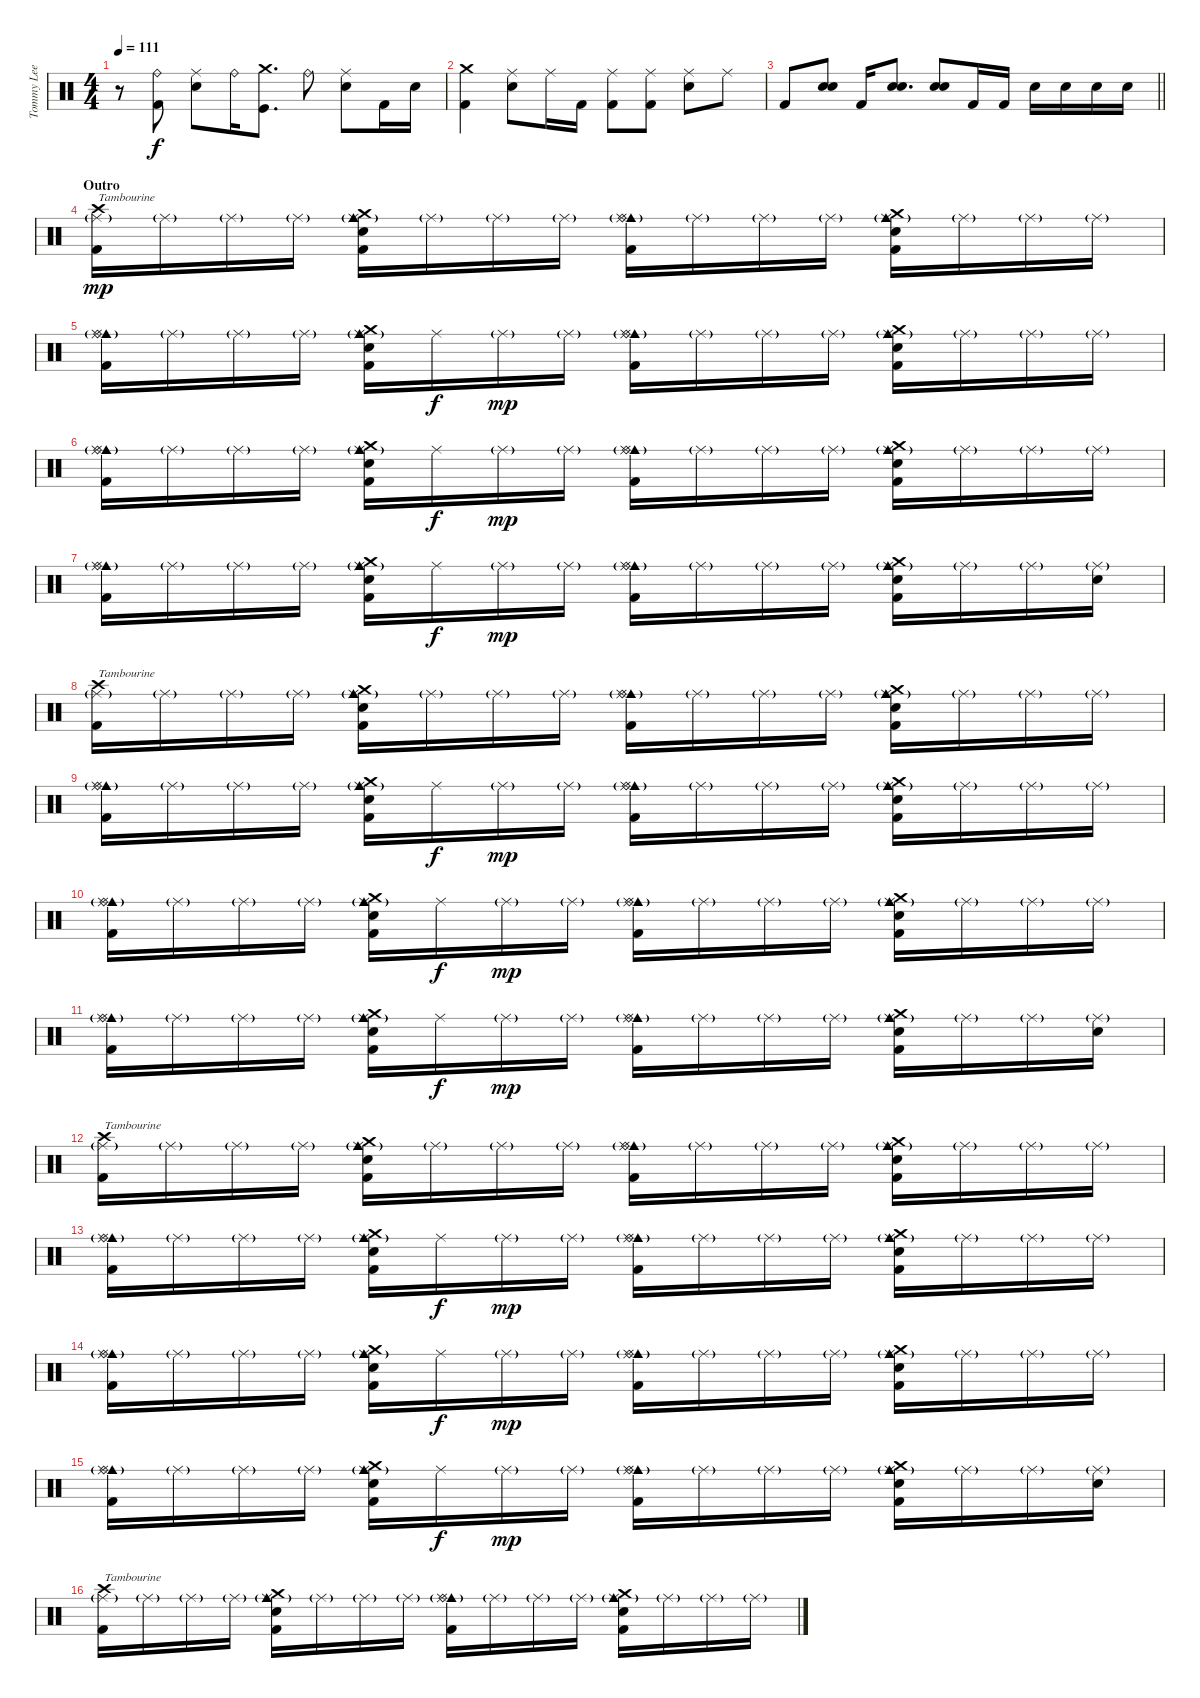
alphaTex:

\track ("Tommy Lee" "Tommy Lee") {instrument percussion}
\staff {score}
\articulation defaults
\ts (4 4)
\tempo 111
\clef neutral
\ks c
r.8{dy f} ("Ride (bell)" "Kick (hit) 2").8 ("Ride (middle)" "Snare (hit) 2").8 "Ride (bell)".16 ("Crash medium (hit)" "Kick (hit)").8{d} "Ride (bell)".8 ("Ride (middle)" "Snare (hit) 2").8 "Kick (hit) 2".16 "Snare (hit) 2".16 |
("Crash medium (hit)" "Kick (hit) 2").4 ("Ride (middle)" "Snare (hit) 2").8 "Ride (middle)".16 "Kick (hit) 2".16 ("Ride (middle)" "Kick (hit) 2").8 ("Ride (middle)" "Kick (hit) 2").8 ("Ride (middle)" "Snare (hit) 2").8 "Ride (middle)".8 |
\barLineRight lightlight "Kick (hit) 2".8
("Snare (hit) 2" "Snare (hit) 2").8 "Kick (hit) 2".16 ("Snare (hit) 2" "Snare (hit) 2").8{d} ("Snare (hit) 2" "Snare (hit) 2").8 "Kick (hit) 2".16 "Kick (hit) 2".16 "Snare (hit) 2".16 "Snare (hit) 2".16 "Snare (hit) 2".16 "Snare (hit) 2".16 |
\section ("" "Outro")
("Crash high (hit)" "Ride (middle)"{g} "Kick (hit) 2").16{txt "Tambourine" dy mp} "Ride (middle)"{g}.16 "Ride (middle)"{g}.16 "Ride (middle)"{g}.16 ("Cowbell medium (hit)" "Crash medium (hit)" "Ride (middle)"{g} "Snare (hit) 2" "Kick (hit) 2").16 "Ride (middle)"{g}.16 "Ride (middle)"{g}.16 "Ride (middle)"{g}.16 ("Cowbell medium (hit)" "Ride (bell)" "Ride (middle)"{g} "Kick (hit) 2").16 "Ride (middle)"{g}.16 "Ride (middle)"{g}.16 "Ride (middle)"{g}.16 ("Cowbell medium (hit)" "Crash medium (hit)" "Ride (middle)"{g} "Snare (hit) 2" "Kick (hit) 2").16 "Ride (middle)"{g}.16 "Ride (middle)"{g}.16 "Ride (middle)"{g}.16 |
("Cowbell medium (hit)" "Ride (bell)" "Ride (middle)"{g} "Kick (hit) 2").16 "Ride (middle)"{g}.16 "Ride (middle)"{g}.16 "Ride (middle)"{g}.16 ("Cowbell medium (hit)" "Crash medium (hit)" "Ride (middle)"{g} "Snare (hit) 2" "Kick (hit) 2").16 "Ride (middle)".16{dy f} "Ride (middle)"{g}.16{dy mp} "Ride (middle)"{g}.16 ("Cowbell medium (hit)" "Ride (bell)" "Ride (middle)"{g} "Kick (hit) 2").16 "Ride (middle)"{g}.16 "Ride (middle)"{g}.16 "Ride (middle)"{g}.16 ("Cowbell medium (hit)" "Crash medium (hit)" "Ride (middle)"{g} "Snare (hit) 2" "Kick (hit) 2").16 "Ride (middle)"{g}.16 "Ride (middle)"{g}.16 "Ride (middle)"{g}.16 |
("Cowbell medium (hit)" "Ride (bell)" "Ride (middle)"{g} "Kick (hit) 2").16 "Ride (middle)"{g}.16 "Ride (middle)"{g}.16 "Ride (middle)"{g}.16 ("Cowbell medium (hit)" "Crash medium (hit)" "Ride (middle)"{g} "Snare (hit) 2" "Kick (hit) 2").16 "Ride (middle)".16{dy f} "Ride (middle)"{g}.16{dy mp} "Ride (middle)"{g}.16 ("Cowbell medium (hit)" "Ride (bell)" "Ride (middle)"{g} "Kick (hit) 2").16 "Ride (middle)"{g}.16 "Ride (middle)"{g}.16 "Ride (middle)"{g}.16 ("Cowbell medium (hit)" "Crash medium (hit)" "Ride (middle)"{g} "Snare (hit) 2" "Kick (hit) 2").16 "Ride (middle)"{g}.16 "Ride (middle)"{g}.16 "Ride (middle)"{g}.16 |
("Cowbell medium (hit)" "Ride (bell)" "Ride (middle)"{g} "Kick (hit) 2").16 "Ride (middle)"{g}.16 "Ride (middle)"{g}.16 "Ride (middle)"{g}.16 ("Cowbell medium (hit)" "Crash medium (hit)" "Ride (middle)"{g} "Snare (hit) 2" "Kick (hit) 2").16 "Ride (middle)".16{dy f} "Ride (middle)"{g}.16{dy mp} "Ride (middle)"{g}.16 ("Cowbell medium (hit)" "Ride (bell)" "Ride (middle)"{g} "Kick (hit) 2").16 "Ride (middle)"{g}.16 "Ride (middle)"{g}.16 "Ride (middle)"{g}.16 ("Cowbell medium (hit)" "Crash medium (hit)" "Ride (middle)"{g} "Snare (hit) 2" "Kick (hit) 2").16 "Ride (middle)"{g}.16 "Ride (middle)"{g}.16 ("Ride (middle)"{g} "Snare (hit) 2").16 |
("Crash high (hit)" "Ride (middle)"{g} "Kick (hit) 2").16{txt "Tambourine"} "Ride (middle)"{g}.16 "Ride (middle)"{g}.16 "Ride (middle)"{g}.16 ("Cowbell medium (hit)" "Crash medium (hit)" "Ride (middle)"{g} "Snare (hit) 2" "Kick (hit) 2").16 "Ride (middle)"{g}.16 "Ride (middle)"{g}.16 "Ride (middle)"{g}.16 ("Cowbell medium (hit)" "Ride (bell)" "Ride (middle)"{g} "Kick (hit) 2").16 "Ride (middle)"{g}.16 "Ride (middle)"{g}.16 "Ride (middle)"{g}.16 ("Cowbell medium (hit)" "Crash medium (hit)" "Ride (middle)"{g} "Snare (hit) 2" "Kick (hit) 2").16 "Ride (middle)"{g}.16 "Ride (middle)"{g}.16 "Ride (middle)"{g}.16 |
("Cowbell medium (hit)" "Ride (bell)" "Ride (middle)"{g} "Kick (hit) 2").16 "Ride (middle)"{g}.16 "Ride (middle)"{g}.16 "Ride (middle)"{g}.16 ("Cowbell medium (hit)" "Crash medium (hit)" "Ride (middle)"{g} "Snare (hit) 2" "Kick (hit) 2").16 "Ride (middle)".16{dy f} "Ride (middle)"{g}.16{dy mp} "Ride (middle)"{g}.16 ("Cowbell medium (hit)" "Ride (bell)" "Ride (middle)"{g} "Kick (hit) 2").16 "Ride (middle)"{g}.16 "Ride (middle)"{g}.16 "Ride (middle)"{g}.16 ("Cowbell medium (hit)" "Crash medium (hit)" "Ride (middle)"{g} "Snare (hit) 2" "Kick (hit) 2").16 "Ride (middle)"{g}.16 "Ride (middle)"{g}.16 "Ride (middle)"{g}.16 |
("Cowbell medium (hit)" "Ride (bell)" "Ride (middle)"{g} "Kick (hit) 2").16 "Ride (middle)"{g}.16 "Ride (middle)"{g}.16 "Ride (middle)"{g}.16 ("Cowbell medium (hit)" "Crash medium (hit)" "Ride (middle)"{g} "Snare (hit) 2" "Kick (hit) 2").16 "Ride (middle)".16{dy f} "Ride (middle)"{g}.16{dy mp} "Ride (middle)"{g}.16 ("Cowbell medium (hit)" "Ride (bell)" "Ride (middle)"{g} "Kick (hit) 2").16 "Ride (middle)"{g}.16 "Ride (middle)"{g}.16 "Ride (middle)"{g}.16 ("Cowbell medium (hit)" "Crash medium (hit)" "Ride (middle)"{g} "Snare (hit) 2" "Kick (hit) 2").16 "Ride (middle)"{g}.16 "Ride (middle)"{g}.16 "Ride (middle)"{g}.16 |
("Cowbell medium (hit)" "Ride (bell)" "Ride (middle)"{g} "Kick (hit) 2").16 "Ride (middle)"{g}.16 "Ride (middle)"{g}.16 "Ride (middle)"{g}.16 ("Cowbell medium (hit)" "Crash medium (hit)" "Ride (middle)"{g} "Snare (hit) 2" "Kick (hit) 2").16 "Ride (middle)".16{dy f} "Ride (middle)"{g}.16{dy mp} "Ride (middle)"{g}.16 ("Cowbell medium (hit)" "Ride (bell)" "Ride (middle)"{g} "Kick (hit) 2").16 "Ride (middle)"{g}.16 "Ride (middle)"{g}.16 "Ride (middle)"{g}.16 ("Cowbell medium (hit)" "Crash medium (hit)" "Ride (middle)"{g} "Snare (hit) 2" "Kick (hit) 2").16 "Ride (middle)"{g}.16 "Ride (middle)"{g}.16 ("Ride (middle)"{g} "Snare (hit) 2").16 |
("Crash high (hit)" "Ride (middle)"{g} "Kick (hit) 2").16{txt "Tambourine"} "Ride (middle)"{g}.16 "Ride (middle)"{g}.16 "Ride (middle)"{g}.16 ("Cowbell medium (hit)" "Crash medium (hit)" "Ride (middle)"{g} "Snare (hit) 2" "Kick (hit) 2").16 "Ride (middle)"{g}.16 "Ride (middle)"{g}.16 "Ride (middle)"{g}.16 ("Cowbell medium (hit)" "Ride (bell)" "Ride (middle)"{g} "Kick (hit) 2").16 "Ride (middle)"{g}.16 "Ride (middle)"{g}.16 "Ride (middle)"{g}.16 ("Cowbell medium (hit)" "Crash medium (hit)" "Ride (middle)"{g} "Snare (hit) 2" "Kick (hit) 2").16 "Ride (middle)"{g}.16 "Ride (middle)"{g}.16 "Ride (middle)"{g}.16 |
("Cowbell medium (hit)" "Ride (bell)" "Ride (middle)"{g} "Kick (hit) 2").16 "Ride (middle)"{g}.16 "Ride (middle)"{g}.16 "Ride (middle)"{g}.16 ("Cowbell medium (hit)" "Crash medium (hit)" "Ride (middle)"{g} "Snare (hit) 2" "Kick (hit) 2").16 "Ride (middle)".16{dy f} "Ride (middle)"{g}.16{dy mp} "Ride (middle)"{g}.16 ("Cowbell medium (hit)" "Ride (bell)" "Ride (middle)"{g} "Kick (hit) 2").16 "Ride (middle)"{g}.16 "Ride (middle)"{g}.16 "Ride (middle)"{g}.16 ("Cowbell medium (hit)" "Crash medium (hit)" "Ride (middle)"{g} "Snare (hit) 2" "Kick (hit) 2").16 "Ride (middle)"{g}.16 "Ride (middle)"{g}.16 "Ride (middle)"{g}.16 |
("Cowbell medium (hit)" "Ride (bell)" "Ride (middle)"{g} "Kick (hit) 2").16 "Ride (middle)"{g}.16 "Ride (middle)"{g}.16 "Ride (middle)"{g}.16 ("Cowbell medium (hit)" "Crash medium (hit)" "Ride (middle)"{g} "Snare (hit) 2" "Kick (hit) 2").16 "Ride (middle)".16{dy f} "Ride (middle)"{g}.16{dy mp} "Ride (middle)"{g}.16 ("Cowbell medium (hit)" "Ride (bell)" "Ride (middle)"{g} "Kick (hit) 2").16 "Ride (middle)"{g}.16 "Ride (middle)"{g}.16 "Ride (middle)"{g}.16 ("Cowbell medium (hit)" "Crash medium (hit)" "Ride (middle)"{g} "Snare (hit) 2" "Kick (hit) 2").16 "Ride (middle)"{g}.16 "Ride (middle)"{g}.16 "Ride (middle)"{g}.16 |
("Cowbell medium (hit)" "Ride (bell)" "Ride (middle)"{g} "Kick (hit) 2").16 "Ride (middle)"{g}.16 "Ride (middle)"{g}.16 "Ride (middle)"{g}.16 ("Cowbell medium (hit)" "Crash medium (hit)" "Ride (middle)"{g} "Snare (hit) 2" "Kick (hit) 2").16 "Ride (middle)".16{dy f} "Ride (middle)"{g}.16{dy mp} "Ride (middle)"{g}.16 ("Cowbell medium (hit)" "Ride (bell)" "Ride (middle)"{g} "Kick (hit) 2").16 "Ride (middle)"{g}.16 "Ride (middle)"{g}.16 "Ride (middle)"{g}.16 ("Cowbell medium (hit)" "Crash medium (hit)" "Ride (middle)"{g} "Snare (hit) 2" "Kick (hit) 2").16 "Ride (middle)"{g}.16 "Ride (middle)"{g}.16 ("Ride (middle)"{g} "Snare (hit) 2").16 |
("Crash high (hit)" "Ride (middle)"{g} "Kick (hit) 2").16{txt "Tambourine"} "Ride (middle)"{g}.16 "Ride (middle)"{g}.16 "Ride (middle)"{g}.16 ("Cowbell medium (hit)" "Crash medium (hit)" "Ride (middle)"{g} "Snare (hit) 2" "Kick (hit) 2").16 "Ride (middle)"{g}.16 "Ride (middle)"{g}.16 "Ride (middle)"{g}.16 ("Cowbell medium (hit)" "Ride (bell)" "Ride (middle)"{g} "Kick (hit) 2").16 "Ride (middle)"{g}.16 "Ride (middle)"{g}.16 "Ride (middle)"{g}.16 ("Cowbell medium (hit)" "Crash medium (hit)" "Ride (middle)"{g} "Snare (hit) 2" "Kick (hit) 2").16 "Ride (middle)"{g}.16 "Ride (middle)"{g}.16 "Ride (middle)"{g}.16
